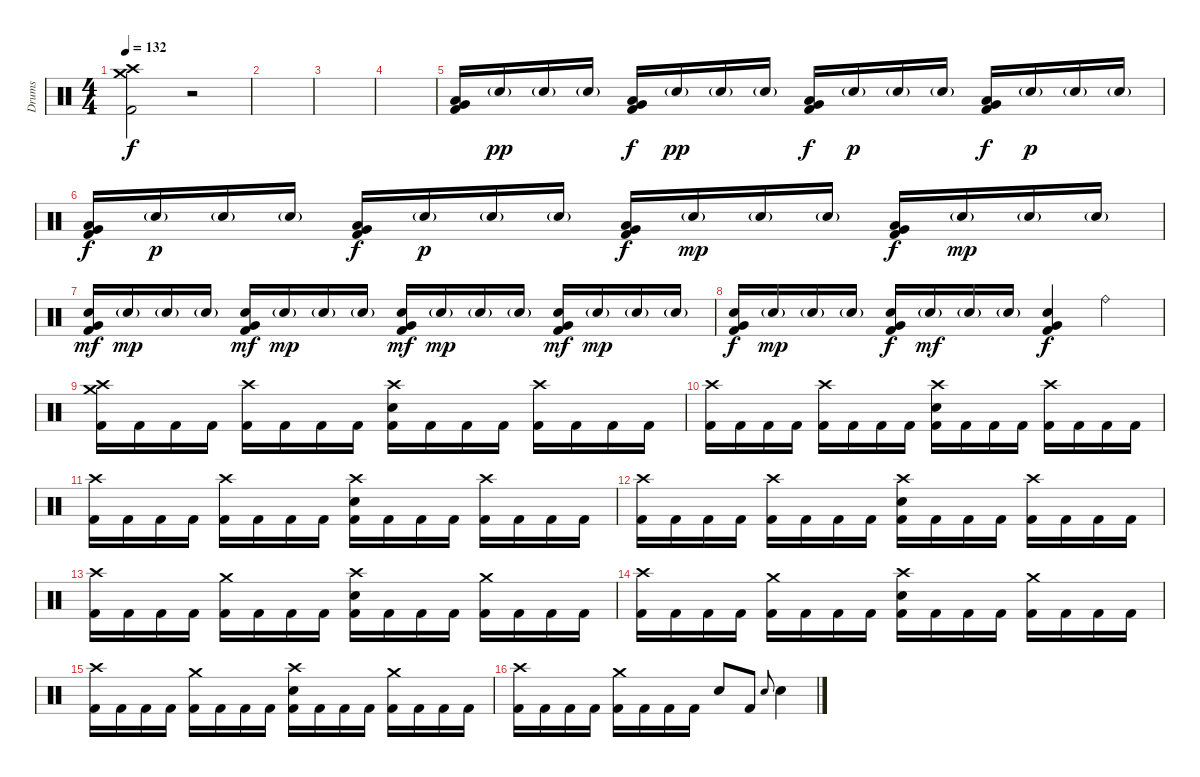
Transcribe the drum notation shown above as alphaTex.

\track ("Drums" "Drums") {instrument percussion}
\staff {score}
\articulation defaults
\ts (4 4)
\tempo 132
\clef neutral
\ks c
("Crash high (hit)" "Crash medium (hit)" "Kick (hit) 2").2{dy f} r.2 |
|
|
|
("Low Floor Tom (hit)" "Very Low Tom (hit)" "Kick (hit) 2").16 "Electric Snare (hit)"{g}.16{dy pp} "Electric Snare (hit)"{g}.16 "Electric Snare (hit)"{g}.16 ("Low Floor Tom (hit)" "Very Low Tom (hit)" "Kick (hit) 2").16{dy f} "Electric Snare (hit)"{g}.16{dy pp} "Electric Snare (hit)"{g}.16 "Electric Snare (hit)"{g}.16 ("Low Floor Tom (hit)" "Very Low Tom (hit)" "Kick (hit) 2").16{dy f} "Electric Snare (hit)"{g}.16{dy p} "Electric Snare (hit)"{g}.16 "Electric Snare (hit)"{g}.16 ("Low Floor Tom (hit)" "Very Low Tom (hit)" "Kick (hit) 2").16{dy f} "Electric Snare (hit)"{g}.16{dy p} "Electric Snare (hit)"{g}.16 "Electric Snare (hit)"{g}.16 |
("Low Floor Tom (hit)" "Very Low Tom (hit)" "Kick (hit) 2").16{dy f} "Electric Snare (hit)"{g}.16{dy p} "Electric Snare (hit)"{g}.16 "Electric Snare (hit)"{g}.16 ("Low Floor Tom (hit)" "Very Low Tom (hit)" "Kick (hit) 2").16{dy f} "Electric Snare (hit)"{g}.16{dy p} "Electric Snare (hit)"{g}.16 "Electric Snare (hit)"{g}.16 ("Low Floor Tom (hit)" "Very Low Tom (hit)" "Kick (hit) 2").16{dy f} "Electric Snare (hit)"{g}.16{dy mp} "Electric Snare (hit)"{g}.16 "Electric Snare (hit)"{g}.16 ("Low Floor Tom (hit)" "Very Low Tom (hit)" "Kick (hit) 2").16{dy f} "Electric Snare (hit)"{g}.16{dy mp} "Electric Snare (hit)"{g}.16 "Electric Snare (hit)"{g}.16 |
("Electric Snare (hit)" "Very Low Tom (hit)" "Kick (hit) 2").16{dy mf} "Electric Snare (hit)"{g}.16{dy mp} "Electric Snare (hit)"{g}.16 "Electric Snare (hit)"{g}.16 ("Electric Snare (hit)" "Very Low Tom (hit)" "Kick (hit) 2").16{dy mf} "Electric Snare (hit)"{g}.16{dy mp} "Electric Snare (hit)"{g}.16 "Electric Snare (hit)"{g}.16 ("Electric Snare (hit)" "Very Low Tom (hit)" "Kick (hit) 2").16{dy mf} "Electric Snare (hit)"{g}.16{dy mp} "Electric Snare (hit)"{g}.16 "Electric Snare (hit)"{g}.16 ("Electric Snare (hit)" "Very Low Tom (hit)" "Kick (hit) 2").16{dy mf} "Electric Snare (hit)"{g}.16{dy mp} "Electric Snare (hit)"{g}.16 "Electric Snare (hit)"{g}.16 |
("Electric Snare (hit)" "Very Low Tom (hit)" "Kick (hit) 2").16{dy f} "Electric Snare (hit)"{g}.16{dy mp} "Electric Snare (hit)"{g}.16 "Electric Snare (hit)"{g}.16 ("Electric Snare (hit)" "Very Low Tom (hit)" "Kick (hit) 2").16{dy f} "Electric Snare (hit)"{g}.16{dy mf} "Electric Snare (hit)"{g}.16 "Electric Snare (hit)"{g}.16 ("Electric Snare (hit)" "Very Low Tom (hit)" "Kick (hit) 2").4{dy f} "Ride (bell)".4 |
("Crash high (hit)" "Crash medium (hit)" "Kick (hit) 2").16 "Kick (hit) 2".16 "Kick (hit) 2".16 "Kick (hit) 2".16 ("Crash high (hit)" "Kick (hit) 2").16 "Kick (hit) 2".16 "Kick (hit) 2".16 "Kick (hit) 2".16 ("Crash high (hit)" "Electric Snare (hit)" "Kick (hit) 2").16 "Kick (hit) 2".16 "Kick (hit) 2".16 "Kick (hit) 2".16 ("Crash high (hit)" "Kick (hit) 2").16 "Kick (hit) 2".16 "Kick (hit) 2".16 "Kick (hit) 2".16 |
("Crash high (hit)" "Kick (hit) 2").16 "Kick (hit) 2".16 "Kick (hit) 2".16 "Kick (hit) 2".16 ("Crash high (hit)" "Kick (hit) 2").16 "Kick (hit) 2".16 "Kick (hit) 2".16 "Kick (hit) 2".16 ("Crash high (hit)" "Electric Snare (hit)" "Kick (hit) 2").16 "Kick (hit) 2".16 "Kick (hit) 2".16 "Kick (hit) 2".16 ("Crash high (hit)" "Kick (hit) 2").16 "Kick (hit) 2".16 "Kick (hit) 2".16 "Kick (hit) 2".16 |
("Crash high (hit)" "Kick (hit) 2").16 "Kick (hit) 2".16 "Kick (hit) 2".16 "Kick (hit) 2".16 ("Crash high (hit)" "Kick (hit) 2").16 "Kick (hit) 2".16 "Kick (hit) 2".16 "Kick (hit) 2".16 ("Crash high (hit)" "Electric Snare (hit)" "Kick (hit) 2").16 "Kick (hit) 2".16 "Kick (hit) 2".16 "Kick (hit) 2".16 ("Crash high (hit)" "Kick (hit) 2").16 "Kick (hit) 2".16 "Kick (hit) 2".16 "Kick (hit) 2".16 |
("Crash high (hit)" "Kick (hit) 2").16 "Kick (hit) 2".16 "Kick (hit) 2".16 "Kick (hit) 2".16 ("Crash high (hit)" "Kick (hit) 2").16 "Kick (hit) 2".16 "Kick (hit) 2".16 "Kick (hit) 2".16 ("Crash high (hit)" "Electric Snare (hit)" "Kick (hit) 2").16 "Kick (hit) 2".16 "Kick (hit) 2".16 "Kick (hit) 2".16 ("Crash high (hit)" "Kick (hit) 2").16 "Kick (hit) 2".16 "Kick (hit) 2".16 "Kick (hit) 2".16 |
("Crash high (hit)" "Kick (hit) 2").16 "Kick (hit) 2".16 "Kick (hit) 2".16 "Kick (hit) 2".16 ("Crash medium (hit)" "Kick (hit) 2").16 "Kick (hit) 2".16 "Kick (hit) 2".16 "Kick (hit) 2".16 ("Crash high (hit)" "Electric Snare (hit)" "Kick (hit) 2").16 "Kick (hit) 2".16 "Kick (hit) 2".16 "Kick (hit) 2".16 ("Crash medium (hit)" "Kick (hit) 2").16 "Kick (hit) 2".16 "Kick (hit) 2".16 "Kick (hit) 2".16 |
("Crash high (hit)" "Kick (hit) 2").16 "Kick (hit) 2".16 "Kick (hit) 2".16 "Kick (hit) 2".16 ("Crash medium (hit)" "Kick (hit) 2").16 "Kick (hit) 2".16 "Kick (hit) 2".16 "Kick (hit) 2".16 ("Crash high (hit)" "Electric Snare (hit)" "Kick (hit) 2").16 "Kick (hit) 2".16 "Kick (hit) 2".16 "Kick (hit) 2".16 ("Crash medium (hit)" "Kick (hit) 2").16 "Kick (hit) 2".16 "Kick (hit) 2".16 "Kick (hit) 2".16 |
("Crash high (hit)" "Kick (hit) 2").16 "Kick (hit) 2".16 "Kick (hit) 2".16 "Kick (hit) 2".16 ("Crash medium (hit)" "Kick (hit) 2").16 "Kick (hit) 2".16 "Kick (hit) 2".16 "Kick (hit) 2".16 ("Crash high (hit)" "Electric Snare (hit)" "Kick (hit) 2").16 "Kick (hit) 2".16 "Kick (hit) 2".16 "Kick (hit) 2".16 ("Crash medium (hit)" "Kick (hit) 2").16 "Kick (hit) 2".16 "Kick (hit) 2".16 "Kick (hit) 2".16 |
("Crash high (hit)" "Kick (hit) 2").16 "Kick (hit) 2".16 "Kick (hit) 2".16 "Kick (hit) 2".16 ("Crash medium (hit)" "Kick (hit) 2").16 "Kick (hit) 2".16 "Kick (hit) 2".16 "Kick (hit) 2".16 "Electric Snare (hit)".8 "Kick (hit) 2".8 "Electric Snare (hit)".8{gr onbeat} "Electric Snare (hit)".4
